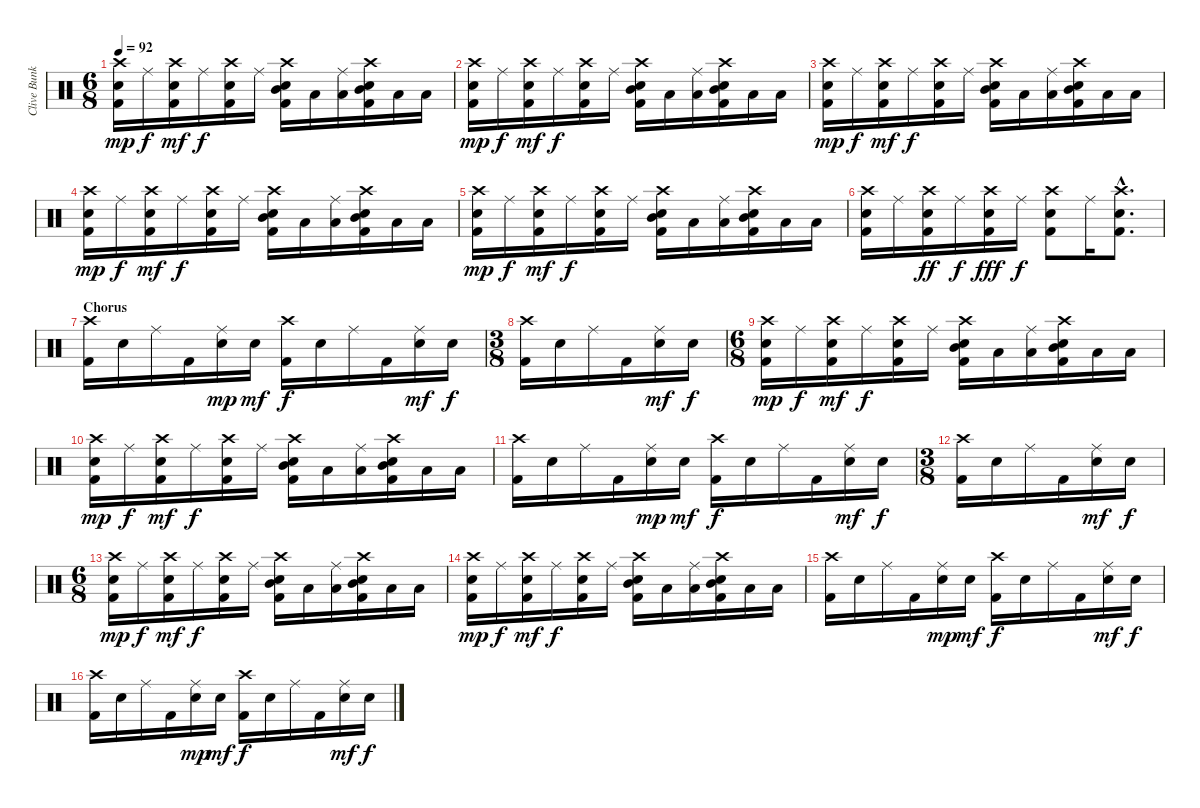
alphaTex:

\track ("Clive Bunker (Drums)" "Clive Bunk") {instrument percussion}
\staff {score}
\articulation defaults
\ts (6 8)
\tempo 92
\clef neutral
\ks c
("Crash high (hit)" "Electric Snare (hit)" "Kick (hit) 2").16{dy mp} "Ride (middle)".16{dy f} ("Crash high (hit)" "Electric Snare (hit)" "Kick (hit) 2").16{dy mf} "Ride (middle)".16{dy f} ("Crash high (hit)" "Electric Snare (hit)" "Kick (hit) 2").16 "Ride (middle)".16 ("Crash high (hit)" "Electric Snare (hit)" "Mid Tom (hit)" "Kick (hit) 2").16 "Low Tom (hit)".16 ("Ride (middle)" "Low Tom (hit)").16 ("Crash high (hit)" "Electric Snare (hit)" "Mid Tom (hit)" "Kick (hit) 2").16 "Low Tom (hit)".16 "Low Tom (hit)".16 |
("Crash high (hit)" "Electric Snare (hit)" "Kick (hit) 2").16{dy mp} "Ride (middle)".16{dy f} ("Crash high (hit)" "Electric Snare (hit)" "Kick (hit) 2").16{dy mf} "Ride (middle)".16{dy f} ("Crash high (hit)" "Electric Snare (hit)" "Kick (hit) 2").16 "Ride (middle)".16 ("Crash high (hit)" "Electric Snare (hit)" "Mid Tom (hit)" "Kick (hit) 2").16 "Low Tom (hit)".16 ("Ride (middle)" "Low Tom (hit)").16 ("Crash high (hit)" "Electric Snare (hit)" "Mid Tom (hit)" "Kick (hit) 2").16 "Low Tom (hit)".16 "Low Tom (hit)".16 |
("Crash high (hit)" "Electric Snare (hit)" "Kick (hit) 2").16{dy mp} "Ride (middle)".16{dy f} ("Crash high (hit)" "Electric Snare (hit)" "Kick (hit) 2").16{dy mf} "Ride (middle)".16{dy f} ("Crash high (hit)" "Electric Snare (hit)" "Kick (hit) 2").16 "Ride (middle)".16 ("Crash high (hit)" "Electric Snare (hit)" "Mid Tom (hit)" "Kick (hit) 2").16 "Low Tom (hit)".16 ("Ride (middle)" "Low Tom (hit)").16 ("Crash high (hit)" "Electric Snare (hit)" "Mid Tom (hit)" "Kick (hit) 2").16 "Low Tom (hit)".16 "Low Tom (hit)".16 |
("Crash high (hit)" "Electric Snare (hit)" "Kick (hit) 2").16{dy mp} "Ride (middle)".16{dy f} ("Crash high (hit)" "Electric Snare (hit)" "Kick (hit) 2").16{dy mf} "Ride (middle)".16{dy f} ("Crash high (hit)" "Electric Snare (hit)" "Kick (hit) 2").16 "Ride (middle)".16 ("Crash high (hit)" "Electric Snare (hit)" "Mid Tom (hit)" "Kick (hit) 2").16 "Low Tom (hit)".16 ("Ride (middle)" "Low Tom (hit)").16 ("Crash high (hit)" "Electric Snare (hit)" "Mid Tom (hit)" "Kick (hit) 2").16 "Low Tom (hit)".16 "Low Tom (hit)".16 |
("Crash high (hit)" "Electric Snare (hit)" "Kick (hit) 2").16{dy mp} "Ride (middle)".16{dy f} ("Crash high (hit)" "Electric Snare (hit)" "Kick (hit) 2").16{dy mf} "Ride (middle)".16{dy f} ("Crash high (hit)" "Electric Snare (hit)" "Kick (hit) 2").16 "Ride (middle)".16 ("Crash high (hit)" "Electric Snare (hit)" "Mid Tom (hit)" "Kick (hit) 2").16 "Low Tom (hit)".16 ("Ride (middle)" "Low Tom (hit)").16 ("Crash high (hit)" "Electric Snare (hit)" "Mid Tom (hit)" "Kick (hit) 2").16 "Low Tom (hit)".16 "Low Tom (hit)".16 |
("Crash high (hit)" "Electric Snare (hit)" "Kick (hit) 2").16 "Ride (middle)".16 ("Crash high (hit)" "Electric Snare (hit)" "Kick (hit) 2").16{dy ff} "Ride (middle)".16{dy f} ("Crash high (hit)" "Electric Snare (hit)" "Kick (hit) 2").16{dy fff} "Ride (middle)".16{dy f} ("Crash high (hit)" "Electric Snare (hit)" "Kick (hit) 2").8 "Ride (middle)".16 ("Crash high (hit)"{hac} "Electric Snare (hit)"{hac} "Kick (hit) 2"{hac}).8{d} |
\section ("" "Chorus")
("Crash high (hit)" "Kick (hit) 2").16 "Electric Snare (hit)".16 "Ride (middle)".16 "Kick (hit) 2".16 ("Ride (middle)" "Electric Snare (hit)").16{dy mp} "Electric Snare (hit)".16{dy mf} ("Crash high (hit)" "Kick (hit) 2").16{dy f} "Electric Snare (hit)".16 "Ride (middle)".16 "Kick (hit) 2".16 ("Ride (middle)" "Electric Snare (hit)").16{dy mf} "Electric Snare (hit)".16{dy f} |
\ts (3 8)
("Crash high (hit)" "Kick (hit) 2").16 "Electric Snare (hit)".16 "Ride (middle)".16 "Kick (hit) 2".16 ("Ride (middle)" "Electric Snare (hit)").16{dy mf} "Electric Snare (hit)".16{dy f} |
\ts (6 8)
("Crash high (hit)" "Electric Snare (hit)" "Kick (hit) 2").16{dy mp} "Ride (middle)".16{dy f} ("Crash high (hit)" "Electric Snare (hit)" "Kick (hit) 2").16{dy mf} "Ride (middle)".16{dy f} ("Crash high (hit)" "Electric Snare (hit)" "Kick (hit) 2").16 "Ride (middle)".16 ("Crash high (hit)" "Electric Snare (hit)" "Mid Tom (hit)" "Kick (hit) 2").16 "Low Tom (hit)".16 ("Ride (middle)" "Low Tom (hit)").16 ("Crash high (hit)" "Electric Snare (hit)" "Mid Tom (hit)" "Kick (hit) 2").16 "Low Tom (hit)".16 "Low Tom (hit)".16 |
("Crash high (hit)" "Electric Snare (hit)" "Kick (hit) 2").16{dy mp} "Ride (middle)".16{dy f} ("Crash high (hit)" "Electric Snare (hit)" "Kick (hit) 2").16{dy mf} "Ride (middle)".16{dy f} ("Crash high (hit)" "Electric Snare (hit)" "Kick (hit) 2").16 "Ride (middle)".16 ("Crash high (hit)" "Electric Snare (hit)" "Mid Tom (hit)" "Kick (hit) 2").16 "Low Tom (hit)".16 ("Ride (middle)" "Low Tom (hit)").16 ("Crash high (hit)" "Electric Snare (hit)" "Mid Tom (hit)" "Kick (hit) 2").16 "Low Tom (hit)".16 "Low Tom (hit)".16 |
("Crash high (hit)" "Kick (hit) 2").16 "Electric Snare (hit)".16 "Ride (middle)".16 "Kick (hit) 2".16 ("Ride (middle)" "Electric Snare (hit)").16{dy mp} "Electric Snare (hit)".16{dy mf} ("Crash high (hit)" "Kick (hit) 2").16{dy f} "Electric Snare (hit)".16 "Ride (middle)".16 "Kick (hit) 2".16 ("Ride (middle)" "Electric Snare (hit)").16{dy mf} "Electric Snare (hit)".16{dy f} |
\ts (3 8)
("Crash high (hit)" "Kick (hit) 2").16 "Electric Snare (hit)".16 "Ride (middle)".16 "Kick (hit) 2".16 ("Ride (middle)" "Electric Snare (hit)").16{dy mf} "Electric Snare (hit)".16{dy f} |
\ts (6 8)
("Crash high (hit)" "Electric Snare (hit)" "Kick (hit) 2").16{dy mp} "Ride (middle)".16{dy f} ("Crash high (hit)" "Electric Snare (hit)" "Kick (hit) 2").16{dy mf} "Ride (middle)".16{dy f} ("Crash high (hit)" "Electric Snare (hit)" "Kick (hit) 2").16 "Ride (middle)".16 ("Crash high (hit)" "Electric Snare (hit)" "Mid Tom (hit)" "Kick (hit) 2").16 "Low Tom (hit)".16 ("Ride (middle)" "Low Tom (hit)").16 ("Crash high (hit)" "Electric Snare (hit)" "Mid Tom (hit)" "Kick (hit) 2").16 "Low Tom (hit)".16 "Low Tom (hit)".16 |
("Crash high (hit)" "Electric Snare (hit)" "Kick (hit) 2").16{dy mp} "Ride (middle)".16{dy f} ("Crash high (hit)" "Electric Snare (hit)" "Kick (hit) 2").16{dy mf} "Ride (middle)".16{dy f} ("Crash high (hit)" "Electric Snare (hit)" "Kick (hit) 2").16 "Ride (middle)".16 ("Crash high (hit)" "Electric Snare (hit)" "Mid Tom (hit)" "Kick (hit) 2").16 "Low Tom (hit)".16 ("Ride (middle)" "Low Tom (hit)").16 ("Crash high (hit)" "Electric Snare (hit)" "Mid Tom (hit)" "Kick (hit) 2").16 "Low Tom (hit)".16 "Low Tom (hit)".16 |
("Crash high (hit)" "Kick (hit) 2").16 "Electric Snare (hit)".16 "Ride (middle)".16 "Kick (hit) 2".16 ("Ride (middle)" "Electric Snare (hit)").16{dy mp} "Electric Snare (hit)".16{dy mf} ("Crash high (hit)" "Kick (hit) 2").16{dy f} "Electric Snare (hit)".16 "Ride (middle)".16 "Kick (hit) 2".16 ("Ride (middle)" "Electric Snare (hit)").16{dy mf} "Electric Snare (hit)".16{dy f} |
("Crash high (hit)" "Kick (hit) 2").16 "Electric Snare (hit)".16 "Ride (middle)".16 "Kick (hit) 2".16 ("Ride (middle)" "Electric Snare (hit)").16{dy mp} "Electric Snare (hit)".16{dy mf} ("Crash high (hit)" "Kick (hit) 2").16{dy f} "Electric Snare (hit)".16 "Ride (middle)".16 "Kick (hit) 2".16 ("Ride (middle)" "Electric Snare (hit)").16{dy mf} "Electric Snare (hit)".16{dy f}
